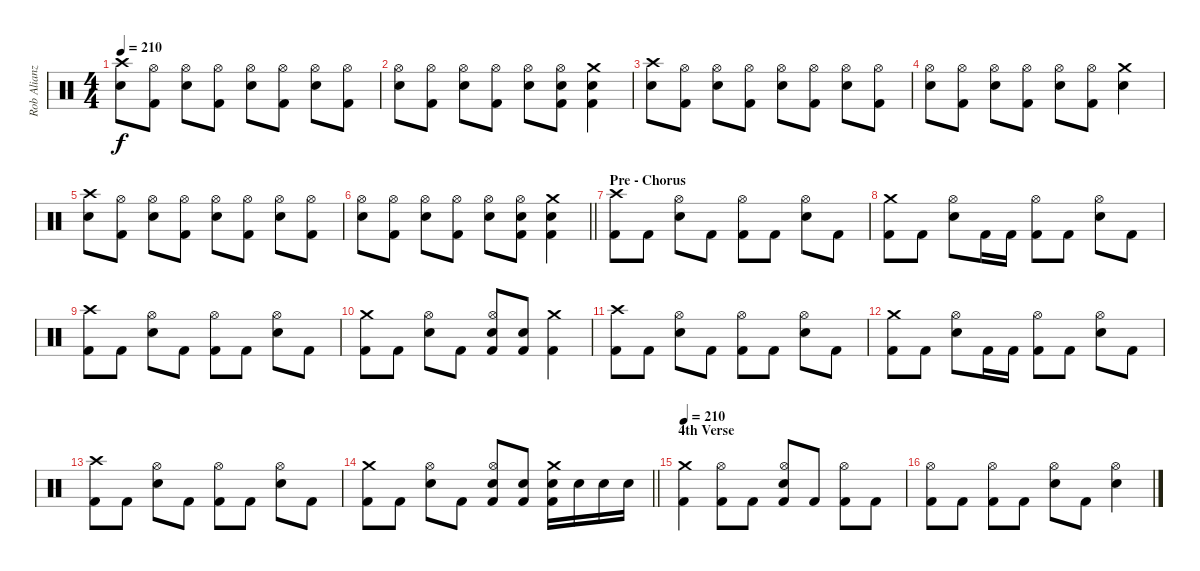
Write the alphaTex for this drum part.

\track ("Rob Alianz" "Rob Alianz") {instrument percussion}
\staff {score}
\articulation defaults
\ts (4 4)
\tempo 210
\clef neutral
\ks c
("Crash high (hit)" "Electric Snare (hit)").8{dy f} ("Hi-Hat (open)" "Kick (hit) 2").8 ("Hi-Hat (open)" "Electric Snare (hit)").8 ("Hi-Hat (open)" "Kick (hit) 2").8 ("Hi-Hat (open)" "Electric Snare (hit)").8 ("Hi-Hat (open)" "Kick (hit) 2").8 ("Hi-Hat (open)" "Electric Snare (hit)").8 ("Hi-Hat (open)" "Kick (hit) 2").8 |
("Hi-Hat (open)" "Electric Snare (hit)").8 ("Hi-Hat (open)" "Kick (hit) 2").8 ("Hi-Hat (open)" "Electric Snare (hit)").8 ("Hi-Hat (open)" "Kick (hit) 2").8 ("Hi-Hat (open)" "Electric Snare (hit)").8 ("Hi-Hat (open)" "Electric Snare (hit)" "Kick (hit) 2").8 ("Crash medium (hit)" "Electric Snare (hit)" "Kick (hit) 2").4 |
("Crash high (hit)" "Electric Snare (hit)").8 ("Hi-Hat (open)" "Kick (hit) 2").8 ("Hi-Hat (open)" "Electric Snare (hit)").8 ("Hi-Hat (open)" "Kick (hit) 2").8 ("Hi-Hat (open)" "Electric Snare (hit)").8 ("Hi-Hat (open)" "Kick (hit) 2").8 ("Hi-Hat (open)" "Electric Snare (hit)").8 ("Hi-Hat (open)" "Kick (hit) 2").8 |
("Hi-Hat (open)" "Electric Snare (hit)").8 ("Hi-Hat (open)" "Kick (hit) 2").8 ("Hi-Hat (open)" "Electric Snare (hit)").8 ("Hi-Hat (open)" "Kick (hit) 2").8 ("Hi-Hat (open)" "Electric Snare (hit)").8 ("Hi-Hat (open)" "Kick (hit) 2").8 ("Crash medium (hit)" "Electric Snare (hit)").4 |
("Crash high (hit)" "Electric Snare (hit)").8 ("Hi-Hat (open)" "Kick (hit) 2").8 ("Hi-Hat (open)" "Electric Snare (hit)").8 ("Hi-Hat (open)" "Kick (hit) 2").8 ("Hi-Hat (open)" "Electric Snare (hit)").8 ("Hi-Hat (open)" "Kick (hit) 2").8 ("Hi-Hat (open)" "Electric Snare (hit)").8 ("Hi-Hat (open)" "Kick (hit) 2").8 |
\barLineRight lightlight
("Hi-Hat (open)" "Electric Snare (hit)").8 ("Hi-Hat (open)" "Kick (hit) 2").8 ("Hi-Hat (open)" "Electric Snare (hit)").8 ("Hi-Hat (open)" "Kick (hit) 2").8 ("Hi-Hat (open)" "Electric Snare (hit)").8 ("Hi-Hat (open)" "Electric Snare (hit)" "Kick (hit) 2").8 ("Crash medium (hit)" "Electric Snare (hit)" "Kick (hit) 2").4 |
\section ("" "Pre - Chorus")
("Crash high (hit)" "Kick (hit) 2").8 "Kick (hit) 2".8 ("Hi-Hat (open)" "Electric Snare (hit)").8 "Kick (hit) 2".8 ("Hi-Hat (open)" "Kick (hit) 2").8 "Kick (hit) 2".8 ("Hi-Hat (open)" "Electric Snare (hit)").8 "Kick (hit) 2".8 |
("Crash medium (hit)" "Kick (hit) 2").8 "Kick (hit) 2".8 ("Hi-Hat (open)" "Electric Snare (hit)").8 "Kick (hit) 2".16 "Kick (hit) 2".16 ("Hi-Hat (open)" "Kick (hit) 2").8 "Kick (hit) 2".8 ("Hi-Hat (open)" "Electric Snare (hit)").8 "Kick (hit) 2".8 |
("Crash high (hit)" "Kick (hit) 2").8 "Kick (hit) 2".8 ("Hi-Hat (open)" "Electric Snare (hit)").8 "Kick (hit) 2".8 ("Hi-Hat (open)" "Kick (hit) 2").8 "Kick (hit) 2".8 ("Hi-Hat (open)" "Electric Snare (hit)").8 "Kick (hit) 2".8 |
("Crash medium (hit)" "Kick (hit) 2").8 "Kick (hit) 2".8 ("Hi-Hat (open)" "Electric Snare (hit)").8 "Kick (hit) 2".8 ("Hi-Hat (open)" "Electric Snare (hit)" "Kick (hit) 2").8 ("Electric Snare (hit)" "Kick (hit) 2").8 ("Crash medium (hit)" "Kick (hit) 2").4 |
("Crash high (hit)" "Kick (hit) 2").8 "Kick (hit) 2".8 ("Hi-Hat (open)" "Electric Snare (hit)").8 "Kick (hit) 2".8 ("Hi-Hat (open)" "Kick (hit) 2").8 "Kick (hit) 2".8 ("Hi-Hat (open)" "Electric Snare (hit)").8 "Kick (hit) 2".8 |
("Crash medium (hit)" "Kick (hit) 2").8 "Kick (hit) 2".8 ("Hi-Hat (open)" "Electric Snare (hit)").8 "Kick (hit) 2".16 "Kick (hit) 2".16 ("Hi-Hat (open)" "Kick (hit) 2").8 "Kick (hit) 2".8 ("Hi-Hat (open)" "Electric Snare (hit)").8 "Kick (hit) 2".8 |
("Crash high (hit)" "Kick (hit) 2").8 "Kick (hit) 2".8 ("Hi-Hat (open)" "Electric Snare (hit)").8 "Kick (hit) 2".8 ("Hi-Hat (open)" "Kick (hit) 2").8 "Kick (hit) 2".8 ("Hi-Hat (open)" "Electric Snare (hit)").8 "Kick (hit) 2".8 |
\barLineRight lightlight
("Crash medium (hit)" "Kick (hit) 2").8 "Kick (hit) 2".8 ("Hi-Hat (open)" "Electric Snare (hit)").8 "Kick (hit) 2".8 ("Hi-Hat (open)" "Electric Snare (hit)" "Kick (hit) 2").8 ("Electric Snare (hit)" "Kick (hit) 2").8 ("Crash medium (hit)" "Electric Snare (hit)" "Kick (hit) 2").16 "Electric Snare (hit)".16 "Electric Snare (hit)".16 "Electric Snare (hit)".16 |
\section ("" "4th Verse")
\tempo 210
("Crash medium (hit)" "Kick (hit) 2").4 ("Hi-Hat (open)" "Kick (hit) 2").8 "Kick (hit) 2".8 ("Hi-Hat (open)" "Electric Snare (hit)" "Kick (hit) 2").8 "Kick (hit) 2".8 ("Hi-Hat (open)" "Kick (hit) 2").8 "Kick (hit) 2".8 |
("Hi-Hat (open)" "Kick (hit) 2").8 "Kick (hit) 2".8 ("Hi-Hat (open)" "Kick (hit) 2").8 "Kick (hit) 2".8 ("Hi-Hat (open)" "Electric Snare (hit)").8 "Kick (hit) 2".8 ("Hi-Hat (open)" "Electric Snare (hit)").4
